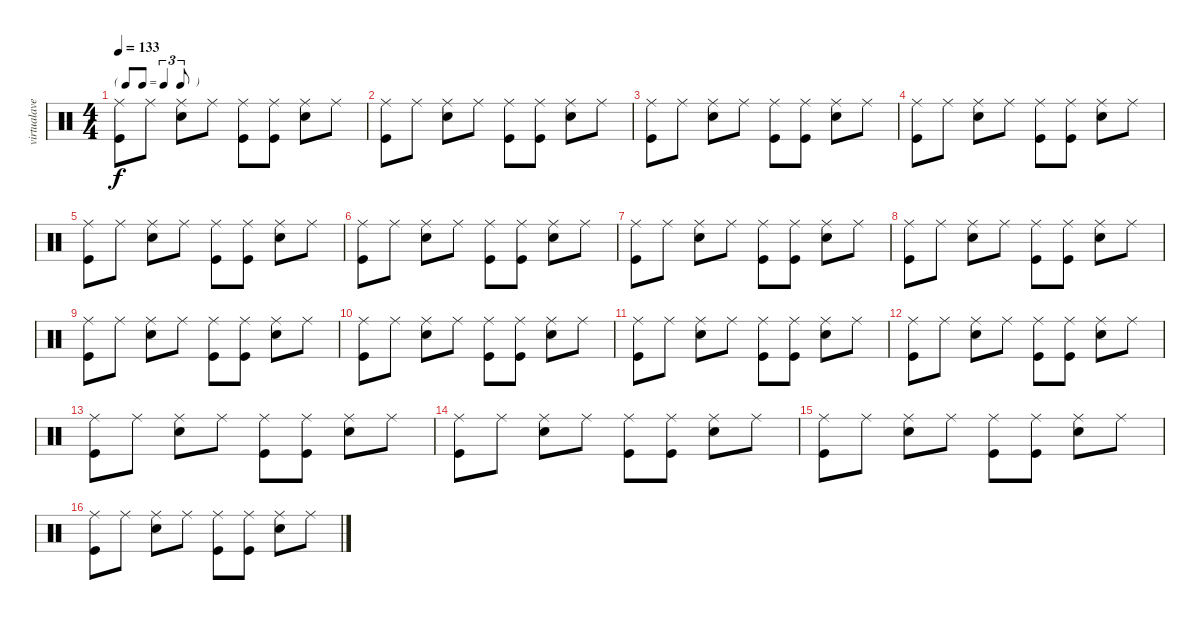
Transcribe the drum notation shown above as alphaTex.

\track ("virtualave.net" "virtualave") {instrument percussion}
\staff {score}
\articulation defaults
\ts (4 4)
\tf triplet8th
\tempo 133
\clef neutral
\ks c
("Ride (middle)" "Kick (hit)").8{dy f} "Ride (middle)".8 ("Ride (middle)" "Snare (hit) 2").8 "Ride (middle)".8 ("Ride (middle)" "Kick (hit)").8 ("Ride (middle)" "Kick (hit)").8 ("Ride (middle)" "Snare (hit) 2").8 "Ride (middle)".8 |
("Ride (middle)" "Kick (hit)").8 "Ride (middle)".8 ("Ride (middle)" "Snare (hit) 2").8 "Ride (middle)".8 ("Ride (middle)" "Kick (hit)").8 ("Ride (middle)" "Kick (hit)").8 ("Ride (middle)" "Snare (hit) 2").8 "Ride (middle)".8 |
("Ride (middle)" "Kick (hit)").8 "Ride (middle)".8 ("Ride (middle)" "Snare (hit) 2").8 "Ride (middle)".8 ("Ride (middle)" "Kick (hit)").8 ("Ride (middle)" "Kick (hit)").8 ("Ride (middle)" "Snare (hit) 2").8 "Ride (middle)".8 |
("Ride (middle)" "Kick (hit)").8 "Ride (middle)".8 ("Ride (middle)" "Snare (hit) 2").8 "Ride (middle)".8 ("Ride (middle)" "Kick (hit)").8 ("Ride (middle)" "Kick (hit)").8 ("Ride (middle)" "Snare (hit) 2").8 "Ride (middle)".8 |
("Ride (middle)" "Kick (hit)").8 "Ride (middle)".8 ("Ride (middle)" "Snare (hit) 2").8 "Ride (middle)".8 ("Ride (middle)" "Kick (hit)").8 ("Ride (middle)" "Kick (hit)").8 ("Ride (middle)" "Snare (hit) 2").8 "Ride (middle)".8 |
("Ride (middle)" "Kick (hit)").8 "Ride (middle)".8 ("Ride (middle)" "Snare (hit) 2").8 "Ride (middle)".8 ("Ride (middle)" "Kick (hit)").8 ("Ride (middle)" "Kick (hit)").8 ("Ride (middle)" "Snare (hit) 2").8 "Ride (middle)".8 |
("Ride (middle)" "Kick (hit)").8 "Ride (middle)".8 ("Ride (middle)" "Snare (hit) 2").8 "Ride (middle)".8 ("Ride (middle)" "Kick (hit)").8 ("Ride (middle)" "Kick (hit)").8 ("Ride (middle)" "Snare (hit) 2").8 "Ride (middle)".8 |
("Ride (middle)" "Kick (hit)").8{volume 13} "Ride (middle)".8 ("Ride (middle)" "Snare (hit) 2").8 "Ride (middle)".8 ("Ride (middle)" "Kick (hit)").8 ("Ride (middle)" "Kick (hit)").8 ("Ride (middle)" "Snare (hit) 2").8 "Ride (middle)".8 |
("Ride (middle)" "Kick (hit)").8 "Ride (middle)".8 ("Ride (middle)" "Snare (hit) 2").8 "Ride (middle)".8 ("Ride (middle)" "Kick (hit)").8 ("Ride (middle)" "Kick (hit)").8 ("Ride (middle)" "Snare (hit) 2").8 "Ride (middle)".8 |
("Ride (middle)" "Kick (hit)").8{volume 10} "Ride (middle)".8 ("Ride (middle)" "Snare (hit) 2").8 "Ride (middle)".8 ("Ride (middle)" "Kick (hit)").8 ("Ride (middle)" "Kick (hit)").8 ("Ride (middle)" "Snare (hit) 2").8 "Ride (middle)".8 |
("Ride (middle)" "Kick (hit)").8 "Ride (middle)".8 ("Ride (middle)" "Snare (hit) 2").8 "Ride (middle)".8 ("Ride (middle)" "Kick (hit)").8 ("Ride (middle)" "Kick (hit)").8 ("Ride (middle)" "Snare (hit) 2").8 "Ride (middle)".8 |
("Ride (middle)" "Kick (hit)").8{volume 6} "Ride (middle)".8 ("Ride (middle)" "Snare (hit) 2").8 "Ride (middle)".8 ("Ride (middle)" "Kick (hit)").8 ("Ride (middle)" "Kick (hit)").8 ("Ride (middle)" "Snare (hit) 2").8 "Ride (middle)".8 |
("Ride (middle)" "Kick (hit)").8 "Ride (middle)".8 ("Ride (middle)" "Snare (hit) 2").8 "Ride (middle)".8 ("Ride (middle)" "Kick (hit)").8 ("Ride (middle)" "Kick (hit)").8 ("Ride (middle)" "Snare (hit) 2").8 "Ride (middle)".8 |
("Ride (middle)" "Kick (hit)").8{volume 5} "Ride (middle)".8 ("Ride (middle)" "Snare (hit) 2").8 "Ride (middle)".8 ("Ride (middle)" "Kick (hit)").8 ("Ride (middle)" "Kick (hit)").8 ("Ride (middle)" "Snare (hit) 2").8 "Ride (middle)".8 |
("Ride (middle)" "Kick (hit)").8 "Ride (middle)".8 ("Ride (middle)" "Snare (hit) 2").8 "Ride (middle)".8 ("Ride (middle)" "Kick (hit)").8 ("Ride (middle)" "Kick (hit)").8 ("Ride (middle)" "Snare (hit) 2").8 "Ride (middle)".8 |
("Ride (middle)" "Kick (hit)").8{volume 3} "Ride (middle)".8 ("Ride (middle)" "Snare (hit) 2").8 "Ride (middle)".8 ("Ride (middle)" "Kick (hit)").8 ("Ride (middle)" "Kick (hit)").8 ("Ride (middle)" "Snare (hit) 2").8 "Ride (middle)".8
